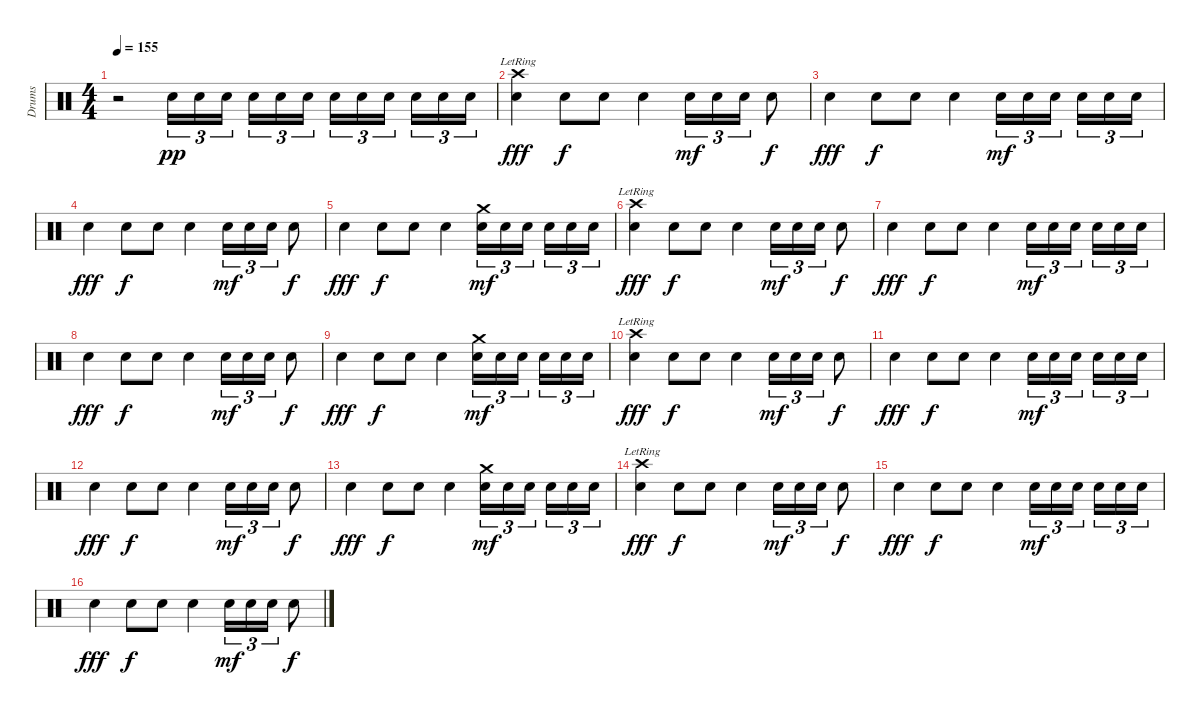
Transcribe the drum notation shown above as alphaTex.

\track ("Drums" "Drums") {instrument percussion}
\staff {score}
\articulation defaults
\ts (4 4)
\tempo 155
\clef neutral
\ks c
r.2{dy pp} "Snare (hit) 2".16{tu (3 2)} "Snare (hit) 2".16{tu (3 2)} "Snare (hit) 2".16{tu (3 2)} "Snare (hit) 2".16{tu (3 2)} "Snare (hit) 2".16{tu (3 2)} "Snare (hit) 2".16{tu (3 2)} "Snare (hit) 2".16{tu (3 2)} "Snare (hit) 2".16{tu (3 2)} "Snare (hit) 2".16{tu (3 2)} "Snare (hit) 2".16{tu (3 2)} "Snare (hit) 2".16{tu (3 2)} "Snare (hit) 2".16{tu (3 2)} |
("Crash high (hit)"{lr} "Snare (hit) 2").4{dy fff} "Snare (hit) 2".8{dy f} "Snare (hit) 2".8 "Snare (hit) 2".4 "Snare (hit) 2".16{tu (3 2) dy mf} "Snare (hit) 2".16{tu (3 2)} "Snare (hit) 2".16{tu (3 2)} "Snare (hit) 2".8{dy f} |
"Snare (hit) 2".4{dy fff} "Snare (hit) 2".8{dy f} "Snare (hit) 2".8 "Snare (hit) 2".4 "Snare (hit) 2".16{tu (3 2) dy mf} "Snare (hit) 2".16{tu (3 2)} "Snare (hit) 2".16{tu (3 2)} "Snare (hit) 2".16{tu (3 2)} "Snare (hit) 2".16{tu (3 2)} "Snare (hit) 2".16{tu (3 2)} |
"Snare (hit) 2".4{dy fff} "Snare (hit) 2".8{dy f} "Snare (hit) 2".8 "Snare (hit) 2".4 "Snare (hit) 2".16{tu (3 2) dy mf} "Snare (hit) 2".16{tu (3 2)} "Snare (hit) 2".16{tu (3 2)} "Snare (hit) 2".8{dy f} |
"Snare (hit) 2".4{dy fff} "Snare (hit) 2".8{dy f} "Snare (hit) 2".8 "Snare (hit) 2".4 ("Crash medium (hit)" "Snare (hit) 2").16{tu (3 2) dy mf} "Snare (hit) 2".16{tu (3 2)} "Snare (hit) 2".16{tu (3 2)} "Snare (hit) 2".16{tu (3 2)} "Snare (hit) 2".16{tu (3 2)} "Snare (hit) 2".16{tu (3 2)} |
("Crash high (hit)"{lr} "Snare (hit) 2").4{dy fff} "Snare (hit) 2".8{dy f} "Snare (hit) 2".8 "Snare (hit) 2".4 "Snare (hit) 2".16{tu (3 2) dy mf} "Snare (hit) 2".16{tu (3 2)} "Snare (hit) 2".16{tu (3 2)} "Snare (hit) 2".8{dy f} |
"Snare (hit) 2".4{dy fff} "Snare (hit) 2".8{dy f} "Snare (hit) 2".8 "Snare (hit) 2".4 "Snare (hit) 2".16{tu (3 2) dy mf} "Snare (hit) 2".16{tu (3 2)} "Snare (hit) 2".16{tu (3 2)} "Snare (hit) 2".16{tu (3 2)} "Snare (hit) 2".16{tu (3 2)} "Snare (hit) 2".16{tu (3 2)} |
"Snare (hit) 2".4{dy fff} "Snare (hit) 2".8{dy f} "Snare (hit) 2".8 "Snare (hit) 2".4 "Snare (hit) 2".16{tu (3 2) dy mf} "Snare (hit) 2".16{tu (3 2)} "Snare (hit) 2".16{tu (3 2)} "Snare (hit) 2".8{dy f} |
"Snare (hit) 2".4{dy fff} "Snare (hit) 2".8{dy f} "Snare (hit) 2".8 "Snare (hit) 2".4 ("Crash medium (hit)" "Snare (hit) 2").16{tu (3 2) dy mf} "Snare (hit) 2".16{tu (3 2)} "Snare (hit) 2".16{tu (3 2)} "Snare (hit) 2".16{tu (3 2)} "Snare (hit) 2".16{tu (3 2)} "Snare (hit) 2".16{tu (3 2)} |
("Crash high (hit)"{lr} "Snare (hit) 2").4{dy fff} "Snare (hit) 2".8{dy f} "Snare (hit) 2".8 "Snare (hit) 2".4 "Snare (hit) 2".16{tu (3 2) dy mf} "Snare (hit) 2".16{tu (3 2)} "Snare (hit) 2".16{tu (3 2)} "Snare (hit) 2".8{dy f} |
"Snare (hit) 2".4{dy fff} "Snare (hit) 2".8{dy f} "Snare (hit) 2".8 "Snare (hit) 2".4 "Snare (hit) 2".16{tu (3 2) dy mf} "Snare (hit) 2".16{tu (3 2)} "Snare (hit) 2".16{tu (3 2)} "Snare (hit) 2".16{tu (3 2)} "Snare (hit) 2".16{tu (3 2)} "Snare (hit) 2".16{tu (3 2)} |
"Snare (hit) 2".4{dy fff} "Snare (hit) 2".8{dy f} "Snare (hit) 2".8 "Snare (hit) 2".4 "Snare (hit) 2".16{tu (3 2) dy mf} "Snare (hit) 2".16{tu (3 2)} "Snare (hit) 2".16{tu (3 2)} "Snare (hit) 2".8{dy f} |
"Snare (hit) 2".4{dy fff} "Snare (hit) 2".8{dy f} "Snare (hit) 2".8 "Snare (hit) 2".4 ("Crash medium (hit)" "Snare (hit) 2").16{tu (3 2) dy mf} "Snare (hit) 2".16{tu (3 2)} "Snare (hit) 2".16{tu (3 2)} "Snare (hit) 2".16{tu (3 2)} "Snare (hit) 2".16{tu (3 2)} "Snare (hit) 2".16{tu (3 2)} |
("Crash high (hit)"{lr} "Snare (hit) 2").4{dy fff} "Snare (hit) 2".8{dy f} "Snare (hit) 2".8 "Snare (hit) 2".4 "Snare (hit) 2".16{tu (3 2) dy mf} "Snare (hit) 2".16{tu (3 2)} "Snare (hit) 2".16{tu (3 2)} "Snare (hit) 2".8{dy f} |
"Snare (hit) 2".4{dy fff} "Snare (hit) 2".8{dy f} "Snare (hit) 2".8 "Snare (hit) 2".4 "Snare (hit) 2".16{tu (3 2) dy mf} "Snare (hit) 2".16{tu (3 2)} "Snare (hit) 2".16{tu (3 2)} "Snare (hit) 2".16{tu (3 2)} "Snare (hit) 2".16{tu (3 2)} "Snare (hit) 2".16{tu (3 2)} |
"Snare (hit) 2".4{dy fff} "Snare (hit) 2".8{dy f} "Snare (hit) 2".8 "Snare (hit) 2".4 "Snare (hit) 2".16{tu (3 2) dy mf} "Snare (hit) 2".16{tu (3 2)} "Snare (hit) 2".16{tu (3 2)} "Snare (hit) 2".8{dy f}
